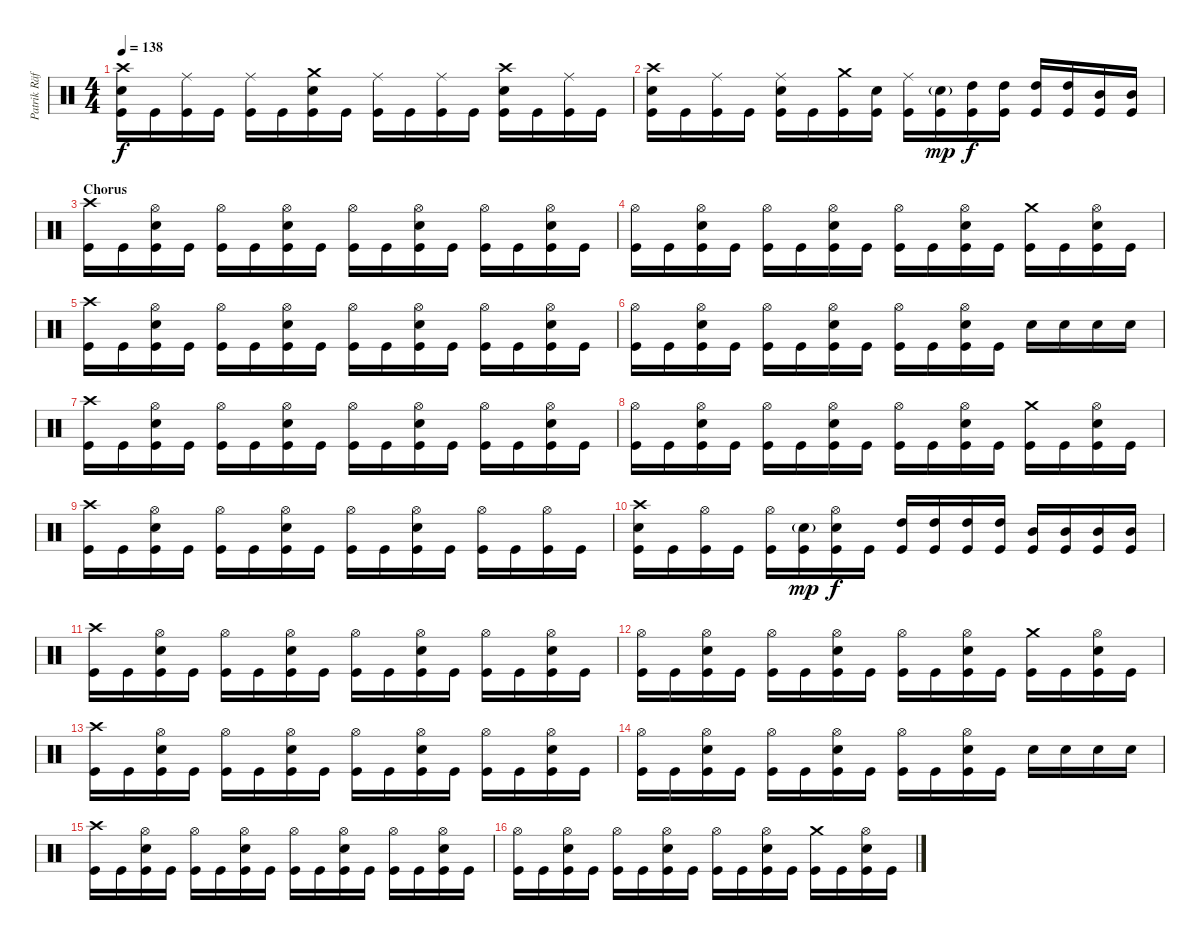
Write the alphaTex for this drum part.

\track ("Patrik Räfling" "Patrik Räf") {instrument percussion}
\staff {score}
\articulation defaults
\ts (4 4)
\tempo 138
\clef neutral
\ks c
("Crash high (hit)" "Snare (hit) 2" "Kick (hit)").16{dy f} "Kick (hit)".16 ("Ride (middle)" "Kick (hit)").16 "Kick (hit)".16 ("Ride (middle)" "Kick (hit)").16 "Kick (hit)".16 ("Crash medium (hit)" "Snare (hit) 2" "Kick (hit)").16 "Kick (hit)".16 ("Ride (middle)" "Kick (hit)").16 "Kick (hit)".16 ("Ride (middle)" "Kick (hit)").16 "Kick (hit)".16 ("Crash high (hit)" "Snare (hit) 2" "Kick (hit)").16 "Kick (hit)".16 ("Ride (middle)" "Kick (hit)").16 "Kick (hit)".16 |
("Crash high (hit)" "Snare (hit) 2" "Kick (hit)").16 "Kick (hit)".16 ("Ride (middle)" "Kick (hit)").16 "Kick (hit)".16 ("Ride (middle)" "Snare (hit) 2" "Kick (hit)").16 "Kick (hit)".16 ("Crash medium (hit)" "Kick (hit)").16 ("Snare (hit) 2" "Kick (hit)").16 ("Ride (middle)" "Kick (hit)").16 ("Snare (hit) 2"{g} "Kick (hit)").16{dy mp} ("High Tom (hit)" "Kick (hit)").16{dy f} ("High Tom (hit)" "Kick (hit)").16 ("High Tom (hit)" "Kick (hit)").16 ("High Tom (hit)" "Kick (hit)").16 ("Mid Tom (hit)" "Kick (hit)").16 ("Mid Tom (hit)" "Kick (hit)").16 |
\section ("" "Chorus")
("Crash high (hit)" "Kick (hit)").16 "Kick (hit)".16 ("Hi-Hat (open)" "Snare (hit) 2" "Kick (hit)").16 "Kick (hit)".16 ("Hi-Hat (open)" "Kick (hit)").16 "Kick (hit)".16 ("Hi-Hat (open)" "Snare (hit) 2" "Kick (hit)").16 "Kick (hit)".16 ("Hi-Hat (open)" "Kick (hit)").16 "Kick (hit)".16 ("Hi-Hat (open)" "Snare (hit) 2" "Kick (hit)").16 "Kick (hit)".16 ("Hi-Hat (open)" "Kick (hit)").16 "Kick (hit)".16 ("Hi-Hat (open)" "Snare (hit) 2" "Kick (hit)").16 "Kick (hit)".16 |
("Hi-Hat (open)" "Kick (hit)").16 "Kick (hit)".16 ("Hi-Hat (open)" "Snare (hit) 2" "Kick (hit)").16 "Kick (hit)".16 ("Hi-Hat (open)" "Kick (hit)").16 "Kick (hit)".16 ("Hi-Hat (open)" "Snare (hit) 2" "Kick (hit)").16 "Kick (hit)".16 ("Hi-Hat (open)" "Kick (hit)").16 "Kick (hit)".16 ("Hi-Hat (open)" "Snare (hit) 2" "Kick (hit)").16 "Kick (hit)".16 ("Crash medium (hit)" "Kick (hit)").16 "Kick (hit)".16 ("Hi-Hat (open)" "Snare (hit) 2" "Kick (hit)").16 "Kick (hit)".16 |
("Crash high (hit)" "Kick (hit)").16 "Kick (hit)".16 ("Hi-Hat (open)" "Snare (hit) 2" "Kick (hit)").16 "Kick (hit)".16 ("Hi-Hat (open)" "Kick (hit)").16 "Kick (hit)".16 ("Hi-Hat (open)" "Snare (hit) 2" "Kick (hit)").16 "Kick (hit)".16 ("Hi-Hat (open)" "Kick (hit)").16 "Kick (hit)".16 ("Hi-Hat (open)" "Snare (hit) 2" "Kick (hit)").16 "Kick (hit)".16 ("Hi-Hat (open)" "Kick (hit)").16 "Kick (hit)".16 ("Hi-Hat (open)" "Snare (hit) 2" "Kick (hit)").16 "Kick (hit)".16 |
("Hi-Hat (open)" "Kick (hit)").16 "Kick (hit)".16 ("Hi-Hat (open)" "Snare (hit) 2" "Kick (hit)").16 "Kick (hit)".16 ("Hi-Hat (open)" "Kick (hit)").16 "Kick (hit)".16 ("Hi-Hat (open)" "Snare (hit) 2" "Kick (hit)").16 "Kick (hit)".16 ("Hi-Hat (open)" "Kick (hit)").16 "Kick (hit)".16 ("Hi-Hat (open)" "Snare (hit) 2" "Kick (hit)").16 "Kick (hit)".16 "Snare (hit) 2".16 "Snare (hit) 2".16 "Snare (hit) 2".16 "Snare (hit) 2".16 |
("Crash high (hit)" "Kick (hit)").16 "Kick (hit)".16 ("Hi-Hat (open)" "Snare (hit) 2" "Kick (hit)").16 "Kick (hit)".16 ("Hi-Hat (open)" "Kick (hit)").16 "Kick (hit)".16 ("Hi-Hat (open)" "Snare (hit) 2" "Kick (hit)").16 "Kick (hit)".16 ("Hi-Hat (open)" "Kick (hit)").16 "Kick (hit)".16 ("Hi-Hat (open)" "Snare (hit) 2" "Kick (hit)").16 "Kick (hit)".16 ("Hi-Hat (open)" "Kick (hit)").16 "Kick (hit)".16 ("Hi-Hat (open)" "Snare (hit) 2" "Kick (hit)").16 "Kick (hit)".16 |
("Hi-Hat (open)" "Kick (hit)").16 "Kick (hit)".16 ("Hi-Hat (open)" "Snare (hit) 2" "Kick (hit)").16 "Kick (hit)".16 ("Hi-Hat (open)" "Kick (hit)").16 "Kick (hit)".16 ("Hi-Hat (open)" "Snare (hit) 2" "Kick (hit)").16 "Kick (hit)".16 ("Hi-Hat (open)" "Kick (hit)").16 "Kick (hit)".16 ("Hi-Hat (open)" "Snare (hit) 2" "Kick (hit)").16 "Kick (hit)".16 ("Crash medium (hit)" "Kick (hit)").16 "Kick (hit)".16 ("Hi-Hat (open)" "Snare (hit) 2" "Kick (hit)").16 "Kick (hit)".16 |
("Crash high (hit)" "Kick (hit)").16 "Kick (hit)".16 ("Hi-Hat (open)" "Snare (hit) 2" "Kick (hit)").16 "Kick (hit)".16 ("Hi-Hat (open)" "Kick (hit)").16 "Kick (hit)".16 ("Hi-Hat (open)" "Snare (hit) 2" "Kick (hit)").16 "Kick (hit)".16 ("Hi-Hat (open)" "Kick (hit)").16 "Kick (hit)".16 ("Hi-Hat (open)" "Snare (hit) 2" "Kick (hit)").16 "Kick (hit)".16 ("Hi-Hat (open)" "Kick (hit)").16 "Kick (hit)".16 ("Hi-Hat (open)" "Kick (hit)").16 "Kick (hit)".16 |
("Crash high (hit)" "Snare (hit) 2" "Kick (hit)").16 "Kick (hit)".16 ("Hi-Hat (open)" "Kick (hit)").16 "Kick (hit)".16 ("Hi-Hat (open)" "Kick (hit)").16 ("Snare (hit) 2"{g} "Kick (hit)").16{dy mp} ("Hi-Hat (open)" "Snare (hit) 2" "Kick (hit)").16{dy f} "Kick (hit)".16 ("High Tom (hit)" "Kick (hit)").16 ("High Tom (hit)" "Kick (hit)").16 ("High Tom (hit)" "Kick (hit)").16 ("High Tom (hit)" "Kick (hit)").16 ("Mid Tom (hit)" "Kick (hit)").16 ("Mid Tom (hit)" "Kick (hit)").16 ("Mid Tom (hit)" "Kick (hit)").16 ("Mid Tom (hit)" "Kick (hit)").16 |
("Crash high (hit)" "Kick (hit)").16 "Kick (hit)".16 ("Hi-Hat (open)" "Snare (hit) 2" "Kick (hit)").16 "Kick (hit)".16 ("Hi-Hat (open)" "Kick (hit)").16 "Kick (hit)".16 ("Hi-Hat (open)" "Snare (hit) 2" "Kick (hit)").16 "Kick (hit)".16 ("Hi-Hat (open)" "Kick (hit)").16 "Kick (hit)".16 ("Hi-Hat (open)" "Snare (hit) 2" "Kick (hit)").16 "Kick (hit)".16 ("Hi-Hat (open)" "Kick (hit)").16 "Kick (hit)".16 ("Hi-Hat (open)" "Snare (hit) 2" "Kick (hit)").16 "Kick (hit)".16 |
("Hi-Hat (open)" "Kick (hit)").16 "Kick (hit)".16 ("Hi-Hat (open)" "Snare (hit) 2" "Kick (hit)").16 "Kick (hit)".16 ("Hi-Hat (open)" "Kick (hit)").16 "Kick (hit)".16 ("Hi-Hat (open)" "Snare (hit) 2" "Kick (hit)").16 "Kick (hit)".16 ("Hi-Hat (open)" "Kick (hit)").16 "Kick (hit)".16 ("Hi-Hat (open)" "Snare (hit) 2" "Kick (hit)").16 "Kick (hit)".16 ("Crash medium (hit)" "Kick (hit)").16 "Kick (hit)".16 ("Hi-Hat (open)" "Snare (hit) 2" "Kick (hit)").16 "Kick (hit)".16 |
("Crash high (hit)" "Kick (hit)").16 "Kick (hit)".16 ("Hi-Hat (open)" "Snare (hit) 2" "Kick (hit)").16 "Kick (hit)".16 ("Hi-Hat (open)" "Kick (hit)").16 "Kick (hit)".16 ("Hi-Hat (open)" "Snare (hit) 2" "Kick (hit)").16 "Kick (hit)".16 ("Hi-Hat (open)" "Kick (hit)").16 "Kick (hit)".16 ("Hi-Hat (open)" "Snare (hit) 2" "Kick (hit)").16 "Kick (hit)".16 ("Hi-Hat (open)" "Kick (hit)").16 "Kick (hit)".16 ("Hi-Hat (open)" "Snare (hit) 2" "Kick (hit)").16 "Kick (hit)".16 |
("Hi-Hat (open)" "Kick (hit)").16 "Kick (hit)".16 ("Hi-Hat (open)" "Snare (hit) 2" "Kick (hit)").16 "Kick (hit)".16 ("Hi-Hat (open)" "Kick (hit)").16 "Kick (hit)".16 ("Hi-Hat (open)" "Snare (hit) 2" "Kick (hit)").16 "Kick (hit)".16 ("Hi-Hat (open)" "Kick (hit)").16 "Kick (hit)".16 ("Hi-Hat (open)" "Snare (hit) 2" "Kick (hit)").16 "Kick (hit)".16 "Snare (hit) 2".16 "Snare (hit) 2".16 "Snare (hit) 2".16 "Snare (hit) 2".16 |
("Crash high (hit)" "Kick (hit)").16 "Kick (hit)".16 ("Hi-Hat (open)" "Snare (hit) 2" "Kick (hit)").16 "Kick (hit)".16 ("Hi-Hat (open)" "Kick (hit)").16 "Kick (hit)".16 ("Hi-Hat (open)" "Snare (hit) 2" "Kick (hit)").16 "Kick (hit)".16 ("Hi-Hat (open)" "Kick (hit)").16 "Kick (hit)".16 ("Hi-Hat (open)" "Snare (hit) 2" "Kick (hit)").16 "Kick (hit)".16 ("Hi-Hat (open)" "Kick (hit)").16 "Kick (hit)".16 ("Hi-Hat (open)" "Snare (hit) 2" "Kick (hit)").16 "Kick (hit)".16 |
("Hi-Hat (open)" "Kick (hit)").16 "Kick (hit)".16 ("Hi-Hat (open)" "Snare (hit) 2" "Kick (hit)").16 "Kick (hit)".16 ("Hi-Hat (open)" "Kick (hit)").16 "Kick (hit)".16 ("Hi-Hat (open)" "Snare (hit) 2" "Kick (hit)").16 "Kick (hit)".16 ("Hi-Hat (open)" "Kick (hit)").16 "Kick (hit)".16 ("Hi-Hat (open)" "Snare (hit) 2" "Kick (hit)").16 "Kick (hit)".16 ("Crash medium (hit)" "Kick (hit)").16 "Kick (hit)".16 ("Hi-Hat (open)" "Snare (hit) 2" "Kick (hit)").16 "Kick (hit)".16
